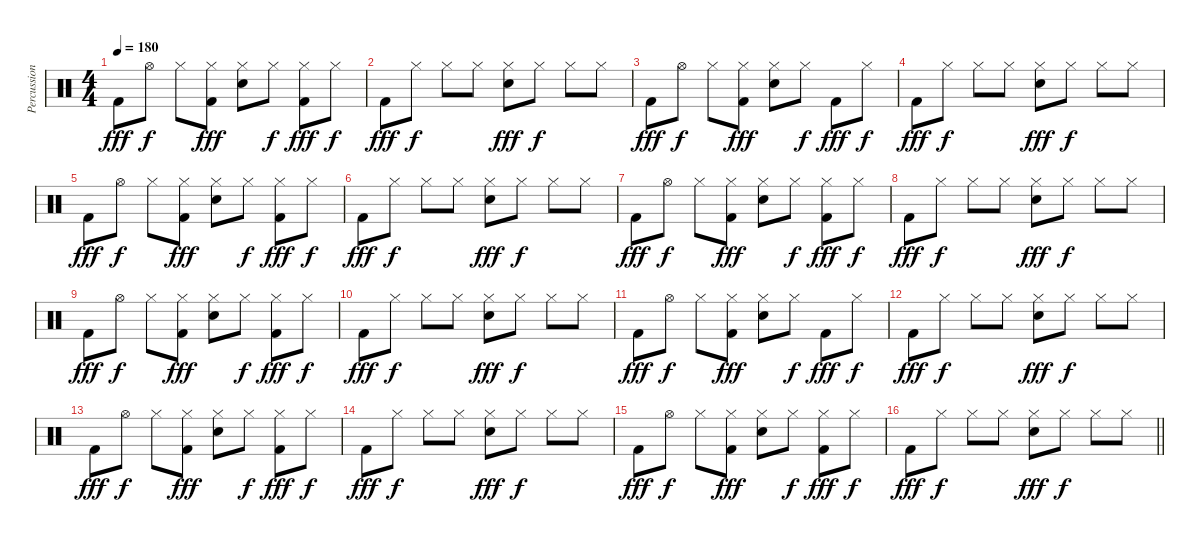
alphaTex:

\track ("Percussion" "Percussion") {instrument percussion}
\staff {score}
\articulation defaults
\ts (4 4)
\tempo 180
\clef neutral
\ks c "Kick (hit) 2".8{dy fff} "Hi-Hat (open)".8{dy f} "Hi-Hat (closed)".8
("Kick (hit) 2" "Hi-Hat (closed)").8{dy fff} ("Snare (hit) 2" "Hi-Hat (closed)").8 "Hi-Hat (closed)".8{dy f} ("Kick (hit) 2" "Hi-Hat (closed)").8{dy fff} "Hi-Hat (closed)".8{dy f} |
"Kick (hit) 2".8{dy fff} "Hi-Hat (closed)".8{dy f} "Hi-Hat (closed)".8 "Hi-Hat (closed)".8 ("Snare (hit) 2" "Hi-Hat (closed)").8{dy fff} "Hi-Hat (closed)".8{dy f} "Hi-Hat (closed)".8 "Hi-Hat (closed)".8 |
"Kick (hit) 2".8{dy fff} "Hi-Hat (open)".8{dy f} "Hi-Hat (closed)".8 ("Kick (hit) 2" "Hi-Hat (closed)").8{dy fff} ("Snare (hit) 2" "Hi-Hat (closed)").8 "Hi-Hat (closed)".8{dy f} "Kick (hit) 2".8{dy fff} "Hi-Hat (closed)".8{dy f} |
"Kick (hit) 2".8{dy fff} "Hi-Hat (closed)".8{dy f} "Hi-Hat (closed)".8 "Hi-Hat (closed)".8 ("Snare (hit) 2" "Hi-Hat (closed)").8{dy fff} "Hi-Hat (closed)".8{dy f} "Hi-Hat (closed)".8 "Hi-Hat (closed)".8 |
"Kick (hit) 2".8{dy fff} "Hi-Hat (open)".8{dy f} "Hi-Hat (closed)".8 ("Kick (hit) 2" "Hi-Hat (closed)").8{dy fff} ("Snare (hit) 2" "Hi-Hat (closed)").8 "Hi-Hat (closed)".8{dy f} ("Kick (hit) 2" "Hi-Hat (closed)").8{dy fff} "Hi-Hat (closed)".8{dy f} |
"Kick (hit) 2".8{dy fff} "Hi-Hat (closed)".8{dy f} "Hi-Hat (closed)".8 "Hi-Hat (closed)".8 ("Snare (hit) 2" "Hi-Hat (closed)").8{dy fff} "Hi-Hat (closed)".8{dy f} "Hi-Hat (closed)".8 "Hi-Hat (closed)".8 |
"Kick (hit) 2".8{dy fff} "Hi-Hat (open)".8{dy f} "Hi-Hat (closed)".8 ("Kick (hit) 2" "Hi-Hat (closed)").8{dy fff} ("Snare (hit) 2" "Hi-Hat (closed)").8 "Hi-Hat (closed)".8{dy f} ("Kick (hit) 2" "Hi-Hat (closed)").8{dy fff} "Hi-Hat (closed)".8{dy f} |
"Kick (hit) 2".8{dy fff} "Hi-Hat (closed)".8{dy f} "Hi-Hat (closed)".8 "Hi-Hat (closed)".8 ("Snare (hit) 2" "Hi-Hat (closed)").8{dy fff} "Hi-Hat (closed)".8{dy f} "Hi-Hat (closed)".8 "Hi-Hat (closed)".8 |
"Kick (hit) 2".8{dy fff} "Hi-Hat (open)".8{dy f} "Hi-Hat (closed)".8 ("Kick (hit) 2" "Hi-Hat (closed)").8{dy fff} ("Snare (hit) 2" "Hi-Hat (closed)").8 "Hi-Hat (closed)".8{dy f} ("Kick (hit) 2" "Hi-Hat (closed)").8{dy fff} "Hi-Hat (closed)".8{dy f} |
"Kick (hit) 2".8{dy fff} "Hi-Hat (closed)".8{dy f} "Hi-Hat (closed)".8 "Hi-Hat (closed)".8 ("Snare (hit) 2" "Hi-Hat (closed)").8{dy fff} "Hi-Hat (closed)".8{dy f} "Hi-Hat (closed)".8 "Hi-Hat (closed)".8 |
"Kick (hit) 2".8{dy fff} "Hi-Hat (open)".8{dy f} "Hi-Hat (closed)".8 ("Kick (hit) 2" "Hi-Hat (closed)").8{dy fff} ("Snare (hit) 2" "Hi-Hat (closed)").8 "Hi-Hat (closed)".8{dy f} "Kick (hit) 2".8{dy fff} "Hi-Hat (closed)".8{dy f} |
"Kick (hit) 2".8{dy fff} "Hi-Hat (closed)".8{dy f} "Hi-Hat (closed)".8 "Hi-Hat (closed)".8 ("Snare (hit) 2" "Hi-Hat (closed)").8{dy fff} "Hi-Hat (closed)".8{dy f} "Hi-Hat (closed)".8 "Hi-Hat (closed)".8 |
"Kick (hit) 2".8{dy fff} "Hi-Hat (open)".8{dy f} "Hi-Hat (closed)".8 ("Kick (hit) 2" "Hi-Hat (closed)").8{dy fff} ("Snare (hit) 2" "Hi-Hat (closed)").8 "Hi-Hat (closed)".8{dy f} ("Kick (hit) 2" "Hi-Hat (closed)").8{dy fff} "Hi-Hat (closed)".8{dy f} |
"Kick (hit) 2".8{dy fff} "Hi-Hat (closed)".8{dy f} "Hi-Hat (closed)".8 "Hi-Hat (closed)".8 ("Snare (hit) 2" "Hi-Hat (closed)").8{dy fff} "Hi-Hat (closed)".8{dy f} "Hi-Hat (closed)".8 "Hi-Hat (closed)".8 |
"Kick (hit) 2".8{dy fff} "Hi-Hat (open)".8{dy f} "Hi-Hat (closed)".8 ("Kick (hit) 2" "Hi-Hat (closed)").8{dy fff} ("Snare (hit) 2" "Hi-Hat (closed)").8 "Hi-Hat (closed)".8{dy f} ("Kick (hit) 2" "Hi-Hat (closed)").8{dy fff} "Hi-Hat (closed)".8{dy f} |
\barLineRight lightlight "Kick (hit) 2".8{dy fff} "Hi-Hat (closed)".8{dy f} "Hi-Hat (closed)".8 "Hi-Hat (closed)".8
("Snare (hit) 2" "Hi-Hat (closed)").8{dy fff} "Hi-Hat (closed)".8{dy f} "Hi-Hat (closed)".8 "Hi-Hat (closed)".8
